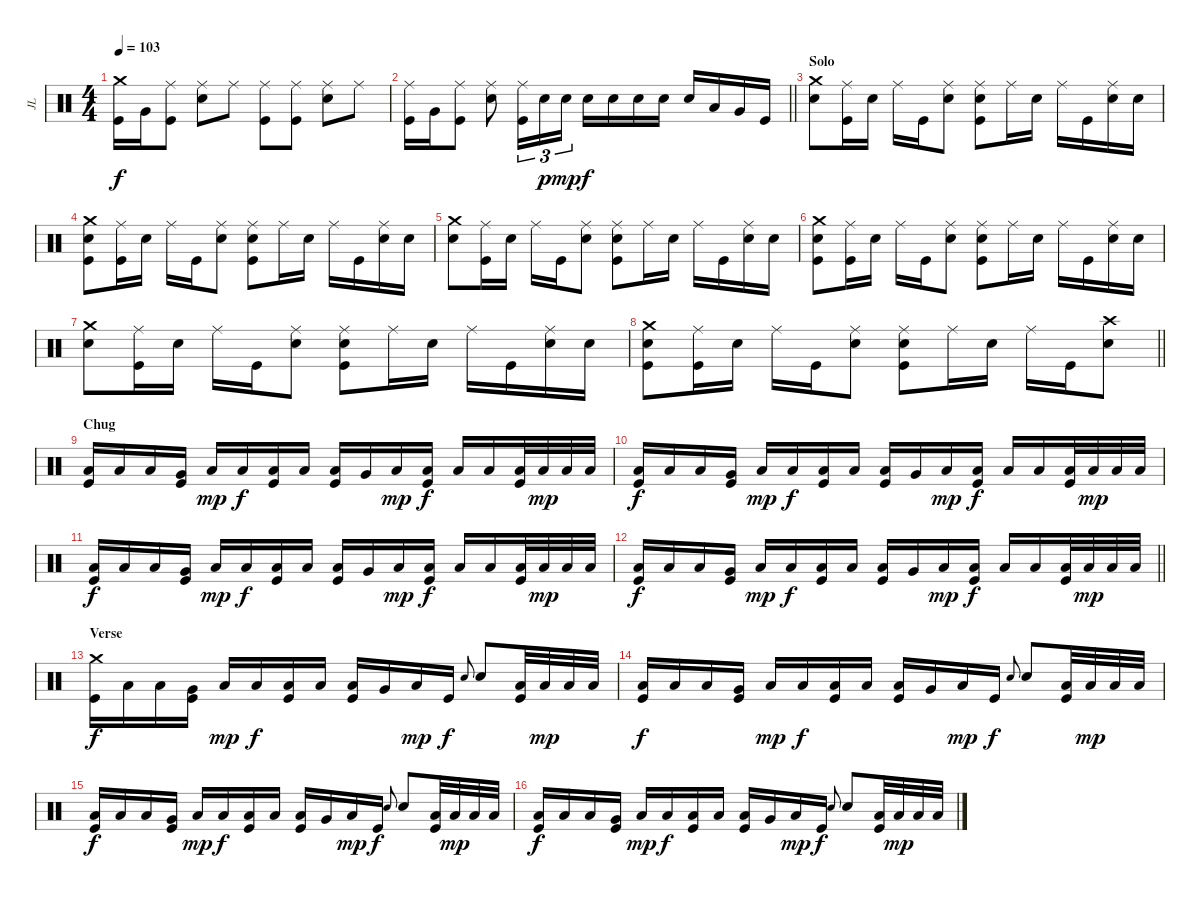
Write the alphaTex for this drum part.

\track ("JL" "JL") {instrument percussion}
\staff {score}
\articulation defaults
\ts (4 4)
\tempo 103
\clef neutral
\ks c
("Crash medium (hit)" "Kick (hit)").16{dy f} "Very Low Tom (hit)".16 ("Ride (middle)" "Kick (hit)").8 ("Ride (middle)" "Electric Snare (hit)").8 "Ride (middle)".8 ("Ride (middle)" "Kick (hit)").8 ("Ride (middle)" "Kick (hit)").8 ("Ride (middle)" "Electric Snare (hit)").8 "Ride (middle)".8 |
\barLineRight lightlight
("Ride (middle)" "Kick (hit)").16 "Very Low Tom (hit)".16 ("Ride (middle)" "Kick (hit)").8 ("Ride (middle)" "Electric Snare (hit)").8 ("Ride (middle)" "Kick (hit)").16{tu (3 2)} "Electric Snare (hit)".16{tu (3 2) dy p} "Electric Snare (hit)".16{tu (3 2) dy mp} "Electric Snare (hit)".16{dy f} "Electric Snare (hit)".16 "Electric Snare (hit)".16 "Electric Snare (hit)".16 "Electric Snare (hit)".16 "Low Tom (hit)".16 "Very Low Tom (hit)".16 "Kick (hit)".16 |
\section ("" "Solo")
("Crash medium (hit)" "Electric Snare (hit)").8 ("Ride (middle)" "Kick (hit)").16 "Electric Snare (hit)".16 "Ride (middle)".16 "Kick (hit)".16 ("Ride (middle)" "Electric Snare (hit)").8 ("Ride (middle)" "Electric Snare (hit)" "Kick (hit)").8 "Ride (middle)".16 "Electric Snare (hit)".16 "Ride (middle)".16 "Kick (hit)".16 ("Ride (middle)" "Electric Snare (hit)").16 "Electric Snare (hit)".16 |
("Crash medium (hit)" "Electric Snare (hit)" "Kick (hit)").8 ("Ride (middle)" "Kick (hit)").16 "Electric Snare (hit)".16 "Ride (middle)".16 "Kick (hit)".16 ("Ride (middle)" "Electric Snare (hit)").8 ("Ride (middle)" "Electric Snare (hit)" "Kick (hit)").8 "Ride (middle)".16 "Electric Snare (hit)".16 "Ride (middle)".16 "Kick (hit)".16 ("Ride (middle)" "Electric Snare (hit)").16 "Electric Snare (hit)".16 |
("Crash medium (hit)" "Electric Snare (hit)").8 ("Ride (middle)" "Kick (hit)").16 "Electric Snare (hit)".16 "Ride (middle)".16 "Kick (hit)".16 ("Ride (middle)" "Electric Snare (hit)").8 ("Ride (middle)" "Electric Snare (hit)" "Kick (hit)").8 "Ride (middle)".16 "Electric Snare (hit)".16 "Ride (middle)".16 "Kick (hit)".16 ("Ride (middle)" "Electric Snare (hit)").16 "Electric Snare (hit)".16 |
("Crash medium (hit)" "Electric Snare (hit)" "Kick (hit)").8 ("Ride (middle)" "Kick (hit)").16 "Electric Snare (hit)".16 "Ride (middle)".16 "Kick (hit)".16 ("Ride (middle)" "Electric Snare (hit)").8 ("Ride (middle)" "Electric Snare (hit)" "Kick (hit)").8 "Ride (middle)".16 "Electric Snare (hit)".16 "Ride (middle)".16 "Kick (hit)".16 ("Ride (middle)" "Electric Snare (hit)").16 "Electric Snare (hit)".16 |
("Crash medium (hit)" "Electric Snare (hit)").8 ("Ride (middle)" "Kick (hit)").16 "Electric Snare (hit)".16 "Ride (middle)".16 "Kick (hit)".16 ("Ride (middle)" "Electric Snare (hit)").8 ("Ride (middle)" "Electric Snare (hit)" "Kick (hit)").8 "Ride (middle)".16 "Electric Snare (hit)".16 "Ride (middle)".16 "Kick (hit)".16 ("Ride (middle)" "Electric Snare (hit)").16 "Electric Snare (hit)".16 |
\barLineRight lightlight
("Crash medium (hit)" "Electric Snare (hit)" "Kick (hit)").8 ("Ride (middle)" "Kick (hit)").16 "Electric Snare (hit)".16 "Ride (middle)".16 "Kick (hit)".16 ("Ride (middle)" "Electric Snare (hit)").8 ("Ride (middle)" "Electric Snare (hit)" "Kick (hit)").8 "Ride (middle)".16 "Electric Snare (hit)".16 "Ride (middle)".16 "Kick (hit)".16 ("Crash high (hit)" "Electric Snare (hit)").8 |
\section ("" "Chug")
("Low Floor Tom (hit)" "Kick (hit)").16 "Low Floor Tom (hit)".16 "Low Floor Tom (hit)".16 ("Very Low Tom (hit)" "Kick (hit)").16 "Low Floor Tom (hit)".16{dy mp} "Low Floor Tom (hit)".16{dy f} ("Low Floor Tom (hit)" "Kick (hit)").16 "Low Floor Tom (hit)".16 ("Low Floor Tom (hit)" "Kick (hit)").16 "Very Low Tom (hit)".16 "Low Floor Tom (hit)".16{dy mp} ("Low Floor Tom (hit)" "Kick (hit)").16{dy f} "Low Floor Tom (hit)".16 "Low Floor Tom (hit)".16 ("Low Floor Tom (hit)" "Kick (hit)").32 "Low Floor Tom (hit)".32{dy mp} "Low Floor Tom (hit)".32 "Low Floor Tom (hit)".32 |
("Low Floor Tom (hit)" "Kick (hit)").16{dy f} "Low Floor Tom (hit)".16 "Low Floor Tom (hit)".16 ("Very Low Tom (hit)" "Kick (hit)").16 "Low Floor Tom (hit)".16{dy mp} "Low Floor Tom (hit)".16{dy f} ("Low Floor Tom (hit)" "Kick (hit)").16 "Low Floor Tom (hit)".16 ("Low Floor Tom (hit)" "Kick (hit)").16 "Very Low Tom (hit)".16 "Low Floor Tom (hit)".16{dy mp} ("Low Floor Tom (hit)" "Kick (hit)").16{dy f} "Low Floor Tom (hit)".16 "Low Floor Tom (hit)".16 ("Low Floor Tom (hit)" "Kick (hit)").32 "Low Floor Tom (hit)".32{dy mp} "Low Floor Tom (hit)".32 "Low Floor Tom (hit)".32 |
("Low Floor Tom (hit)" "Kick (hit)").16{dy f} "Low Floor Tom (hit)".16 "Low Floor Tom (hit)".16 ("Very Low Tom (hit)" "Kick (hit)").16 "Low Floor Tom (hit)".16{dy mp} "Low Floor Tom (hit)".16{dy f} ("Low Floor Tom (hit)" "Kick (hit)").16 "Low Floor Tom (hit)".16 ("Low Floor Tom (hit)" "Kick (hit)").16 "Very Low Tom (hit)".16 "Low Floor Tom (hit)".16{dy mp} ("Low Floor Tom (hit)" "Kick (hit)").16{dy f} "Low Floor Tom (hit)".16 "Low Floor Tom (hit)".16 ("Low Floor Tom (hit)" "Kick (hit)").32 "Low Floor Tom (hit)".32{dy mp} "Low Floor Tom (hit)".32 "Low Floor Tom (hit)".32 |
\barLineRight lightlight
("Low Floor Tom (hit)" "Kick (hit)").16{dy f} "Low Floor Tom (hit)".16 "Low Floor Tom (hit)".16 ("Very Low Tom (hit)" "Kick (hit)").16 "Low Floor Tom (hit)".16{dy mp} "Low Floor Tom (hit)".16{dy f} ("Low Floor Tom (hit)" "Kick (hit)").16 "Low Floor Tom (hit)".16 ("Low Floor Tom (hit)" "Kick (hit)").16 "Very Low Tom (hit)".16 "Low Floor Tom (hit)".16{dy mp} ("Low Floor Tom (hit)" "Kick (hit)").16{dy f} "Low Floor Tom (hit)".16 "Low Floor Tom (hit)".16 ("Low Floor Tom (hit)" "Kick (hit)").32 "Low Floor Tom (hit)".32{dy mp} "Low Floor Tom (hit)".32 "Low Floor Tom (hit)".32 |
\section ("" "Verse")
("Crash medium (hit)" "Kick (hit)").16{dy f} "Low Floor Tom (hit)".16 "Low Floor Tom (hit)".16 ("Very Low Tom (hit)" "Kick (hit)").16 "Low Floor Tom (hit)".16{dy mp} "Low Floor Tom (hit)".16{dy f} ("Low Floor Tom (hit)" "Kick (hit)").16 "Low Floor Tom (hit)".16 ("Low Floor Tom (hit)" "Kick (hit)").16 "Very Low Tom (hit)".16 "Low Floor Tom (hit)".16{dy mp} "Kick (hit)".16{dy f} "Electric Snare (hit)".8{gr onbeat} "Electric Snare (hit)".8 ("Low Floor Tom (hit)" "Kick (hit)").32 "Low Floor Tom (hit)".32{dy mp} "Low Floor Tom (hit)".32 "Low Floor Tom (hit)".32 |
("Low Floor Tom (hit)" "Kick (hit)").16{dy f} "Low Floor Tom (hit)".16 "Low Floor Tom (hit)".16 ("Very Low Tom (hit)" "Kick (hit)").16 "Low Floor Tom (hit)".16{dy mp} "Low Floor Tom (hit)".16{dy f} ("Low Floor Tom (hit)" "Kick (hit)").16 "Low Floor Tom (hit)".16 ("Low Floor Tom (hit)" "Kick (hit)").16 "Very Low Tom (hit)".16 "Low Floor Tom (hit)".16{dy mp} "Kick (hit)".16{dy f} "Electric Snare (hit)".8{gr onbeat} "Electric Snare (hit)".8 ("Low Floor Tom (hit)" "Kick (hit)").32 "Low Floor Tom (hit)".32{dy mp} "Low Floor Tom (hit)".32 "Low Floor Tom (hit)".32 |
("Low Floor Tom (hit)" "Kick (hit)").16{dy f} "Low Floor Tom (hit)".16 "Low Floor Tom (hit)".16 ("Very Low Tom (hit)" "Kick (hit)").16 "Low Floor Tom (hit)".16{dy mp} "Low Floor Tom (hit)".16{dy f} ("Low Floor Tom (hit)" "Kick (hit)").16 "Low Floor Tom (hit)".16 ("Low Floor Tom (hit)" "Kick (hit)").16 "Very Low Tom (hit)".16 "Low Floor Tom (hit)".16{dy mp} "Kick (hit)".16{dy f} "Electric Snare (hit)".8{gr onbeat} "Electric Snare (hit)".8 ("Low Floor Tom (hit)" "Kick (hit)").32 "Low Floor Tom (hit)".32{dy mp} "Low Floor Tom (hit)".32 "Low Floor Tom (hit)".32 |
("Low Floor Tom (hit)" "Kick (hit)").16{dy f} "Low Floor Tom (hit)".16 "Low Floor Tom (hit)".16 ("Very Low Tom (hit)" "Kick (hit)").16 "Low Floor Tom (hit)".16{dy mp} "Low Floor Tom (hit)".16{dy f} ("Low Floor Tom (hit)" "Kick (hit)").16 "Low Floor Tom (hit)".16 ("Low Floor Tom (hit)" "Kick (hit)").16 "Very Low Tom (hit)".16 "Low Floor Tom (hit)".16{dy mp} "Kick (hit)".16{dy f} "Electric Snare (hit)".8{gr onbeat} "Electric Snare (hit)".8 ("Low Floor Tom (hit)" "Kick (hit)").32 "Low Floor Tom (hit)".32{dy mp} "Low Floor Tom (hit)".32 "Low Floor Tom (hit)".32
